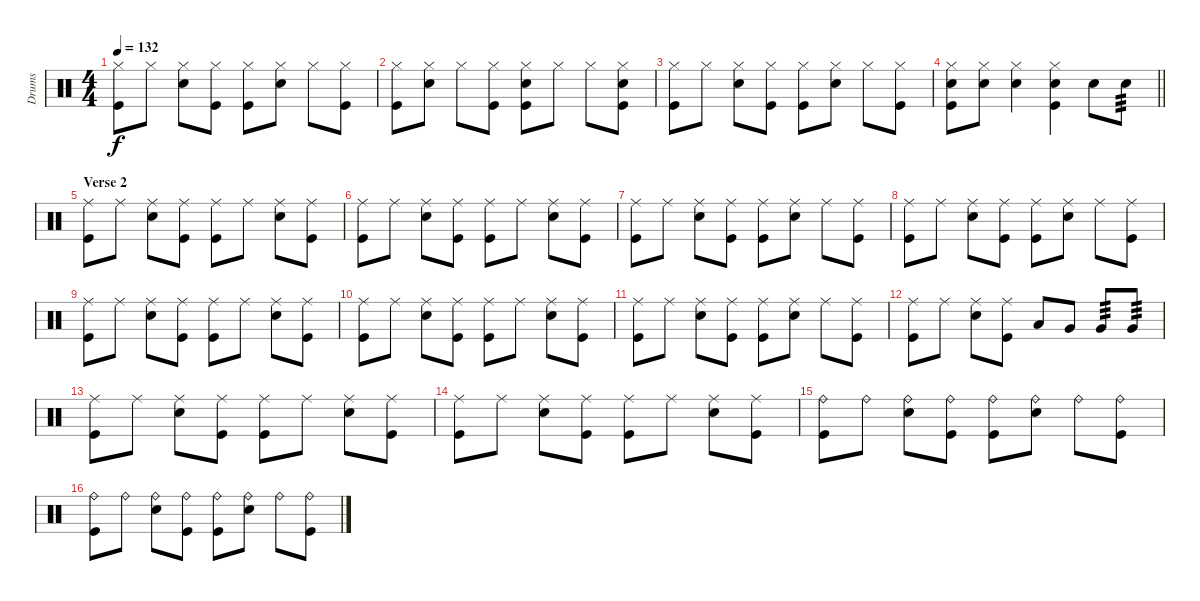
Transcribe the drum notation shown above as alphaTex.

\track ("Drums" "Drums") {instrument percussion}
\staff {score}
\articulation defaults
\ts (4 4)
\tempo 132
\clef neutral
\ks c
("Hi-Hat (closed)" "Kick (hit)").8{dy f} "Hi-Hat (closed)".8 ("Hi-Hat (closed)" "Electric Snare (hit)").8 ("Hi-Hat (closed)" "Kick (hit)").8 ("Hi-Hat (closed)" "Kick (hit)").8 ("Hi-Hat (closed)" "Electric Snare (hit)").8 "Hi-Hat (closed)".8 ("Hi-Hat (closed)" "Kick (hit)").8 |
("Hi-Hat (closed)" "Kick (hit)").8 ("Hi-Hat (closed)" "Electric Snare (hit)").8 "Hi-Hat (closed)".8 ("Hi-Hat (closed)" "Kick (hit)").8 ("Hi-Hat (closed)" "Electric Snare (hit)" "Kick (hit)").8 "Hi-Hat (closed)".8 "Hi-Hat (closed)".8 ("Hi-Hat (closed)" "Electric Snare (hit)" "Kick (hit)").8 |
("Hi-Hat (closed)" "Kick (hit)").8 "Hi-Hat (closed)".8 ("Hi-Hat (closed)" "Electric Snare (hit)").8 ("Hi-Hat (closed)" "Kick (hit)").8 ("Hi-Hat (closed)" "Kick (hit)").8 ("Hi-Hat (closed)" "Electric Snare (hit)").8 "Hi-Hat (closed)".8 ("Hi-Hat (closed)" "Kick (hit)").8 |
\barLineRight lightlight
("Hi-Hat (closed)" "Electric Snare (hit)" "Kick (hit)").8 ("Hi-Hat (closed)" "Electric Snare (hit)").8 ("Hi-Hat (closed)" "Electric Snare (hit)").4 ("Hi-Hat (closed)" "Electric Snare (hit)" "Kick (hit)").4 "Electric Snare (hit)".8 "Electric Snare (hit)".8{tp 3} |
\section ("" "Verse 2")
("Ride (middle)" "Kick (hit)").8 "Ride (middle)".8 ("Ride (middle)" "Electric Snare (hit)").8 ("Ride (middle)" "Kick (hit)").8 ("Ride (middle)" "Kick (hit)").8 "Ride (middle)".8 ("Ride (middle)" "Electric Snare (hit)").8 ("Ride (middle)" "Kick (hit)").8 |
("Ride (middle)" "Kick (hit)").8 "Ride (middle)".8 ("Ride (middle)" "Electric Snare (hit)").8 ("Ride (middle)" "Kick (hit)").8 ("Ride (middle)" "Kick (hit)").8 "Ride (middle)".8 ("Ride (middle)" "Electric Snare (hit)").8 ("Ride (middle)" "Kick (hit)").8 |
("Ride (middle)" "Kick (hit)").8 "Ride (middle)".8 ("Ride (middle)" "Electric Snare (hit)").8 ("Ride (middle)" "Kick (hit)").8 ("Ride (middle)" "Kick (hit)").8 ("Ride (middle)" "Electric Snare (hit)").8 "Ride (middle)".8 ("Ride (middle)" "Kick (hit)").8 |
("Ride (middle)" "Kick (hit)").8 "Ride (middle)".8 ("Ride (middle)" "Electric Snare (hit)").8 ("Ride (middle)" "Kick (hit)").8 ("Ride (middle)" "Kick (hit)").8 ("Ride (middle)" "Electric Snare (hit)").8 "Ride (middle)".8 ("Ride (middle)" "Kick (hit)").8 |
("Ride (middle)" "Kick (hit)").8 "Ride (middle)".8 ("Ride (middle)" "Electric Snare (hit)").8 ("Ride (middle)" "Kick (hit)").8 ("Ride (middle)" "Kick (hit)").8 "Ride (middle)".8 ("Ride (middle)" "Electric Snare (hit)").8 ("Ride (middle)" "Kick (hit)").8 |
("Ride (middle)" "Kick (hit)").8 "Ride (middle)".8 ("Ride (middle)" "Electric Snare (hit)").8 ("Ride (middle)" "Kick (hit)").8 ("Ride (middle)" "Kick (hit)").8 "Ride (middle)".8 ("Ride (middle)" "Electric Snare (hit)").8 ("Ride (middle)" "Kick (hit)").8 |
("Ride (middle)" "Kick (hit)").8 "Ride (middle)".8 ("Ride (middle)" "Electric Snare (hit)").8 ("Ride (middle)" "Kick (hit)").8 ("Ride (middle)" "Kick (hit)").8 ("Ride (middle)" "Electric Snare (hit)").8 "Ride (middle)".8 ("Ride (middle)" "Kick (hit)").8 |
("Ride (middle)" "Kick (hit)").8 "Ride (middle)".8 ("Ride (middle)" "Electric Snare (hit)").8 ("Ride (middle)" "Kick (hit)").8 "Low Tom (hit)".8 "Very Low Tom (hit)".8 "Very Low Tom (hit)".8{tp 3} "Very Low Tom (hit)".8{tp 3} |
("Ride (middle)" "Kick (hit)").8 "Ride (middle)".8 ("Ride (middle)" "Electric Snare (hit)").8 ("Ride (middle)" "Kick (hit)").8 ("Ride (middle)" "Kick (hit)").8 "Ride (middle)".8 ("Ride (middle)" "Electric Snare (hit)").8 ("Ride (middle)" "Kick (hit)").8 |
("Ride (middle)" "Kick (hit)").8 "Ride (middle)".8 ("Ride (middle)" "Electric Snare (hit)").8 ("Ride (middle)" "Kick (hit)").8 ("Ride (middle)" "Kick (hit)").8 "Ride (middle)".8 ("Ride (middle)" "Electric Snare (hit)").8 ("Ride (middle)" "Kick (hit)").8 |
("Ride (bell)" "Kick (hit)").8 "Ride (bell)".8 ("Ride (bell)" "Electric Snare (hit)").8 ("Ride (bell)" "Kick (hit)").8 ("Ride (bell)" "Kick (hit)").8 ("Ride (bell)" "Electric Snare (hit)").8 "Ride (bell)".8 ("Ride (bell)" "Kick (hit)").8 |
("Ride (bell)" "Kick (hit)").8 "Ride (bell)".8 ("Ride (bell)" "Electric Snare (hit)").8 ("Ride (bell)" "Kick (hit)").8 ("Ride (bell)" "Kick (hit)").8 ("Ride (bell)" "Electric Snare (hit)").8 "Ride (bell)".8 ("Ride (bell)" "Kick (hit)").8
